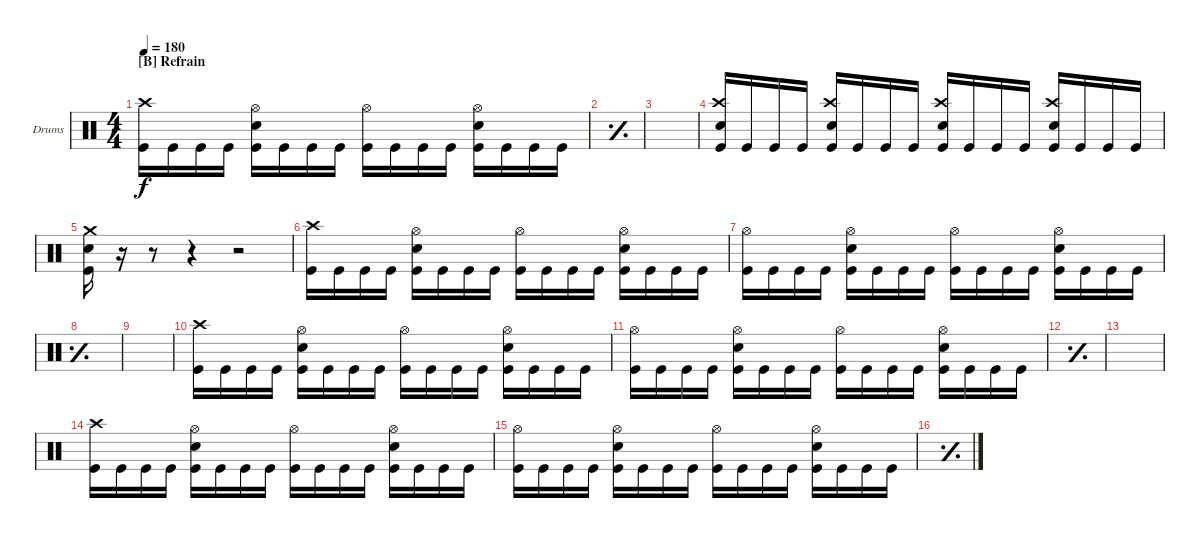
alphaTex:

\defaultSystemsLayout 4
\bracketExtendMode groupsimilarinstruments
\firstSystemTrackNameOrientation horizontal
\otherSystemsTrackNameOrientation horizontal
\track ("Drumkit" "Drums") {instrument percussion}
\staff {score}
\articulation defaults
\ts (4 4)
\section ("B" "Refrain")
\tempo 180
\clef neutral
\ks c
("Kick (hit)" "Crash high (hit)").16{dy f} "Kick (hit)".16 "Kick (hit)".16 "Kick (hit)".16 ("Kick (hit)" "Snare (hit) 2" "Hi-Hat (open)").16 "Kick (hit)".16 "Kick (hit)".16 "Kick (hit)".16 ("Kick (hit)" "Hi-Hat (open)").16 "Kick (hit)".16 "Kick (hit)".16 "Kick (hit)".16 ("Kick (hit)" "Snare (hit) 2" "Hi-Hat (open)").16 "Kick (hit)".16 "Kick (hit)".16 "Kick (hit)".16 |
\simile simple
|
|
\simile none
("Kick (hit)" "Snare (hit) 2" "Crash high (hit)").16 "Kick (hit)".16 "Kick (hit)".16 "Kick (hit)".16 ("Kick (hit)" "Snare (hit) 2" "Crash high (hit)").16 "Kick (hit)".16 "Kick (hit)".16 "Kick (hit)".16 ("Kick (hit)" "Snare (hit) 2" "Crash high (hit)").16 "Kick (hit)".16 "Kick (hit)".16 "Kick (hit)".16 ("Kick (hit)" "Snare (hit) 2" "Crash high (hit)").16 "Kick (hit)".16 "Kick (hit)".16 "Kick (hit)".16 |
("Crash medium (hit)" "Snare (hit) 2" "Kick (hit)").16 r.16 r.8 r.4 r.2 |
("Kick (hit)" "Crash high (hit)").16 "Kick (hit)".16 "Kick (hit)".16 "Kick (hit)".16 ("Kick (hit)" "Snare (hit) 2" "Hi-Hat (open)").16 "Kick (hit)".16 "Kick (hit)".16 "Kick (hit)".16 ("Kick (hit)" "Hi-Hat (open)").16 "Kick (hit)".16 "Kick (hit)".16 "Kick (hit)".16 ("Kick (hit)" "Snare (hit) 2" "Hi-Hat (open)").16 "Kick (hit)".16 "Kick (hit)".16 "Kick (hit)".16 |
("Kick (hit)" "Hi-Hat (open)").16 "Kick (hit)".16 "Kick (hit)".16 "Kick (hit)".16 ("Kick (hit)" "Snare (hit) 2" "Hi-Hat (open)").16 "Kick (hit)".16 "Kick (hit)".16 "Kick (hit)".16 ("Kick (hit)" "Hi-Hat (open)").16 "Kick (hit)".16 "Kick (hit)".16 "Kick (hit)".16 ("Kick (hit)" "Snare (hit) 2" "Hi-Hat (open)").16 "Kick (hit)".16 "Kick (hit)".16 "Kick (hit)".16 |
\simile simple
|
|
\simile none
("Kick (hit)" "Crash high (hit)").16 "Kick (hit)".16 "Kick (hit)".16 "Kick (hit)".16 ("Kick (hit)" "Snare (hit) 2" "Hi-Hat (open)").16 "Kick (hit)".16 "Kick (hit)".16 "Kick (hit)".16 ("Kick (hit)" "Hi-Hat (open)").16 "Kick (hit)".16 "Kick (hit)".16 "Kick (hit)".16 ("Kick (hit)" "Snare (hit) 2" "Hi-Hat (open)").16 "Kick (hit)".16 "Kick (hit)".16 "Kick (hit)".16 |
("Kick (hit)" "Hi-Hat (open)").16 "Kick (hit)".16 "Kick (hit)".16 "Kick (hit)".16 ("Kick (hit)" "Snare (hit) 2" "Hi-Hat (open)").16 "Kick (hit)".16 "Kick (hit)".16 "Kick (hit)".16 ("Kick (hit)" "Hi-Hat (open)").16 "Kick (hit)".16 "Kick (hit)".16 "Kick (hit)".16 ("Kick (hit)" "Snare (hit) 2" "Hi-Hat (open)").16 "Kick (hit)".16 "Kick (hit)".16 "Kick (hit)".16 |
\simile simple
|
|
\simile none
("Kick (hit)" "Crash high (hit)").16 "Kick (hit)".16 "Kick (hit)".16 "Kick (hit)".16 ("Kick (hit)" "Snare (hit) 2" "Hi-Hat (open)").16 "Kick (hit)".16 "Kick (hit)".16 "Kick (hit)".16 ("Kick (hit)" "Hi-Hat (open)").16 "Kick (hit)".16 "Kick (hit)".16 "Kick (hit)".16 ("Kick (hit)" "Snare (hit) 2" "Hi-Hat (open)").16 "Kick (hit)".16 "Kick (hit)".16 "Kick (hit)".16 |
("Kick (hit)" "Hi-Hat (open)").16 "Kick (hit)".16 "Kick (hit)".16 "Kick (hit)".16 ("Kick (hit)" "Snare (hit) 2" "Hi-Hat (open)").16 "Kick (hit)".16 "Kick (hit)".16 "Kick (hit)".16 ("Kick (hit)" "Hi-Hat (open)").16 "Kick (hit)".16 "Kick (hit)".16 "Kick (hit)".16 ("Kick (hit)" "Snare (hit) 2" "Hi-Hat (open)").16 "Kick (hit)".16 "Kick (hit)".16 "Kick (hit)".16 |
\simile simple
